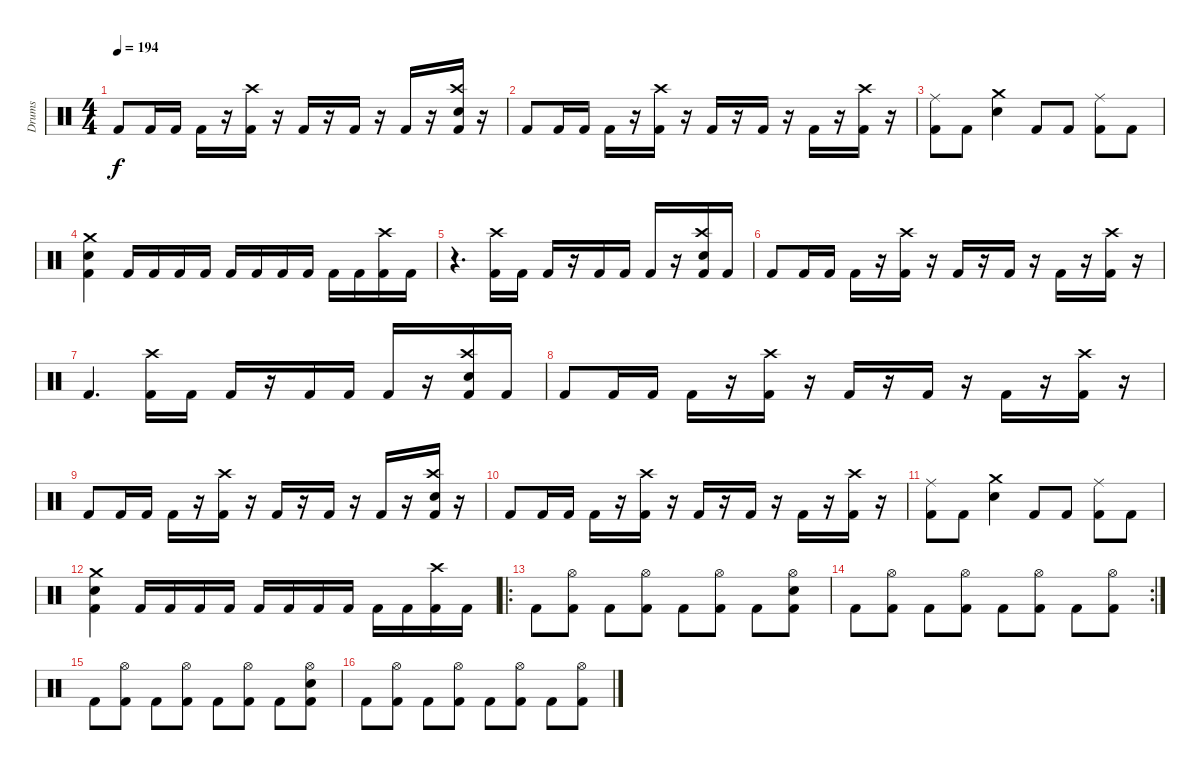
\track ("Drums" "Drums") {instrument percussion}
\staff {score}
\articulation defaults
\ts (4 4)
\tempo 194
\clef neutral
\ks c "Kick (hit) 2".8{dy f} "Kick (hit) 2".16 "Kick (hit) 2".16 "Kick (hit) 2".16
r.16 ("Crash high (hit)" "Kick (hit) 2").16 r.16 "Kick (hit) 2".16 r.16 "Kick (hit) 2".16 r.16 "Kick (hit) 2".16 r.16 ("Crash high (hit)" "Electric Snare (hit)" "Kick (hit) 2").16 r.16 |
"Kick (hit) 2".8 "Kick (hit) 2".16 "Kick (hit) 2".16 "Kick (hit) 2".16 r.16 ("Crash high (hit)" "Kick (hit) 2").16 r.16 "Kick (hit) 2".16 r.16 "Kick (hit) 2".16 r.16 "Kick (hit) 2".16 r.16 ("Crash high (hit)" "Kick (hit) 2").16 r.16 |
("Ride (middle)" "Kick (hit) 2").8 "Kick (hit) 2".8 ("Crash medium (hit)" "Electric Snare (hit)").4 "Kick (hit) 2".8 "Kick (hit) 2".8 ("Ride (middle)" "Kick (hit) 2").8 "Kick (hit) 2".8 |
("Crash medium (hit)" "Electric Snare (hit)" "Kick (hit) 2").4 "Kick (hit) 2".16 "Kick (hit) 2".16 "Kick (hit) 2".16 "Kick (hit) 2".16 "Kick (hit) 2".16 "Kick (hit) 2".16 "Kick (hit) 2".16 "Kick (hit) 2".16 "Kick (hit) 2".16 "Kick (hit) 2".16 ("Crash high (hit)" "Kick (hit) 2").16 "Kick (hit) 2".16 |
r.4{d} ("Crash high (hit)" "Kick (hit) 2").16 "Kick (hit) 2".16 "Kick (hit) 2".16 r.16 "Kick (hit) 2".16 "Kick (hit) 2".16 "Kick (hit) 2".16 r.16 ("Crash high (hit)" "Electric Snare (hit)" "Kick (hit) 2").16 "Kick (hit) 2".16 |
"Kick (hit) 2".8 "Kick (hit) 2".16 "Kick (hit) 2".16 "Kick (hit) 2".16 r.16 ("Crash high (hit)" "Kick (hit) 2").16 r.16 "Kick (hit) 2".16 r.16 "Kick (hit) 2".16 r.16 "Kick (hit) 2".16 r.16 ("Crash high (hit)" "Kick (hit) 2").16 r.16 |
"Kick (hit) 2".4{d} ("Crash high (hit)" "Kick (hit) 2").16 "Kick (hit) 2".16 "Kick (hit) 2".16 r.16 "Kick (hit) 2".16 "Kick (hit) 2".16 "Kick (hit) 2".16 r.16 ("Crash high (hit)" "Electric Snare (hit)" "Kick (hit) 2").16 "Kick (hit) 2".16 |
"Kick (hit) 2".8 "Kick (hit) 2".16 "Kick (hit) 2".16 "Kick (hit) 2".16 r.16 ("Crash high (hit)" "Kick (hit) 2").16 r.16 "Kick (hit) 2".16 r.16 "Kick (hit) 2".16 r.16 "Kick (hit) 2".16 r.16 ("Crash high (hit)" "Kick (hit) 2").16 r.16 |
"Kick (hit) 2".8 "Kick (hit) 2".16 "Kick (hit) 2".16 "Kick (hit) 2".16 r.16 ("Crash high (hit)" "Kick (hit) 2").16 r.16 "Kick (hit) 2".16 r.16 "Kick (hit) 2".16 r.16 "Kick (hit) 2".16 r.16 ("Crash high (hit)" "Electric Snare (hit)" "Kick (hit) 2").16 r.16 |
"Kick (hit) 2".8 "Kick (hit) 2".16 "Kick (hit) 2".16 "Kick (hit) 2".16 r.16 ("Crash high (hit)" "Kick (hit) 2").16 r.16 "Kick (hit) 2".16 r.16 "Kick (hit) 2".16 r.16 "Kick (hit) 2".16 r.16 ("Crash high (hit)" "Kick (hit) 2").16 r.16 |
("Ride (middle)" "Kick (hit) 2").8 "Kick (hit) 2".8 ("Crash medium (hit)" "Electric Snare (hit)").4 "Kick (hit) 2".8 "Kick (hit) 2".8 ("Ride (middle)" "Kick (hit) 2").8 "Kick (hit) 2".8 |
("Crash medium (hit)" "Electric Snare (hit)" "Kick (hit) 2").4 "Kick (hit) 2".16 "Kick (hit) 2".16 "Kick (hit) 2".16 "Kick (hit) 2".16 "Kick (hit) 2".16 "Kick (hit) 2".16 "Kick (hit) 2".16 "Kick (hit) 2".16 "Kick (hit) 2".16 "Kick (hit) 2".16 ("Crash high (hit)" "Kick (hit) 2").16 "Kick (hit) 2".16 |
\ro "Kick (hit) 2".8
("Hi-Hat (open)" "Kick (hit) 2").8 "Kick (hit) 2".8 ("Hi-Hat (open)" "Kick (hit) 2").8 "Kick (hit) 2".8 ("Hi-Hat (open)" "Kick (hit) 2").8 "Kick (hit) 2".8 ("Hi-Hat (open)" "Electric Snare (hit)" "Kick (hit) 2").8 |
\rc 2 "Kick (hit) 2".8
("Hi-Hat (open)" "Kick (hit) 2").8 "Kick (hit) 2".8 ("Hi-Hat (open)" "Kick (hit) 2").8 "Kick (hit) 2".8 ("Hi-Hat (open)" "Kick (hit) 2").8 "Kick (hit) 2".8 ("Hi-Hat (open)" "Kick (hit) 2").8 |
"Kick (hit) 2".8 ("Hi-Hat (open)" "Kick (hit) 2").8 "Kick (hit) 2".8 ("Hi-Hat (open)" "Kick (hit) 2").8 "Kick (hit) 2".8 ("Hi-Hat (open)" "Kick (hit) 2").8 "Kick (hit) 2".8 ("Hi-Hat (open)" "Electric Snare (hit)" "Kick (hit) 2").8 |
"Kick (hit) 2".8 ("Hi-Hat (open)" "Kick (hit) 2").8 "Kick (hit) 2".8 ("Hi-Hat (open)" "Kick (hit) 2").8 "Kick (hit) 2".8 ("Hi-Hat (open)" "Kick (hit) 2").8 "Kick (hit) 2".8 ("Hi-Hat (open)" "Kick (hit) 2").8
